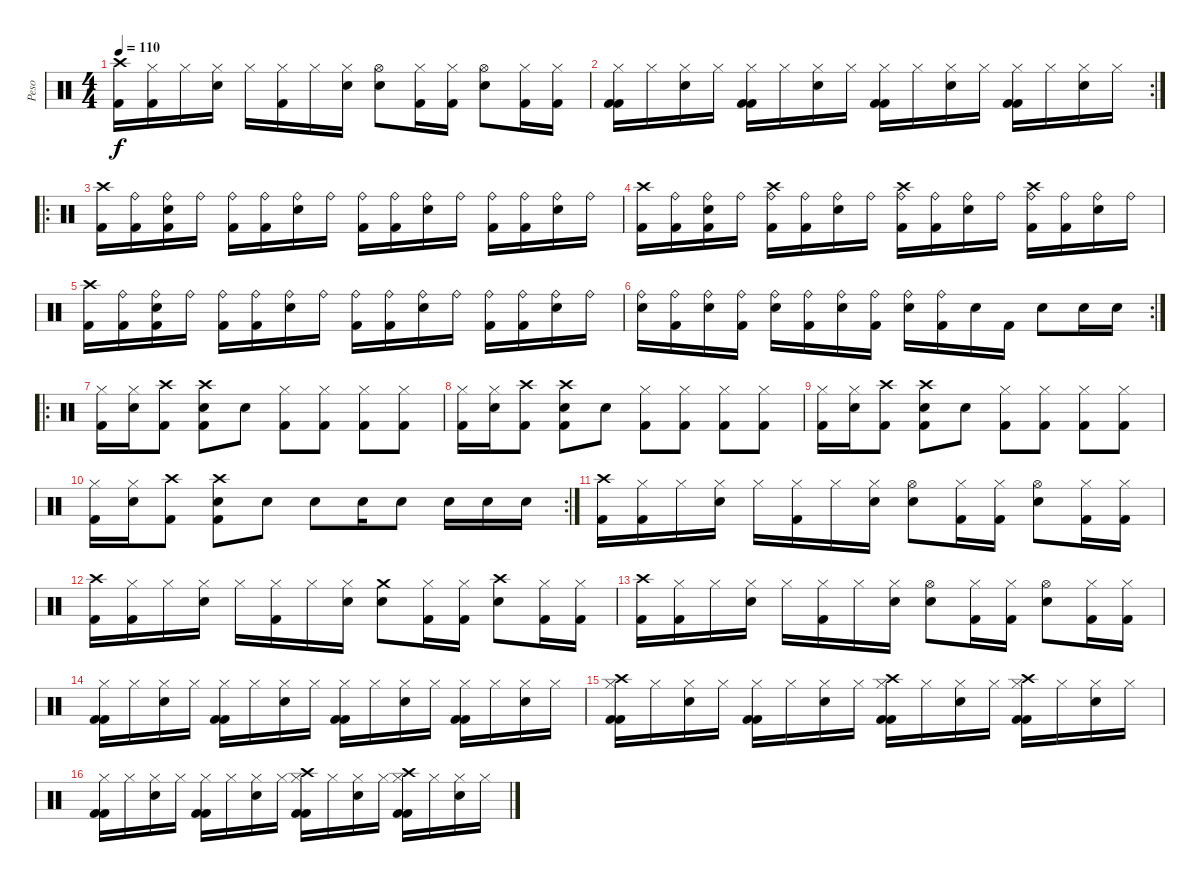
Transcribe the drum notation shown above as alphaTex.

\track ("Peso" "Peso") {instrument percussion}
\staff {score}
\articulation defaults
\ts (4 4)
\tempo 110
\clef neutral
\ks c
("Crash high (hit)" "Kick (hit) 2").16{dy f} ("Hi-Hat (closed)" "Kick (hit) 2").16 "Hi-Hat (closed)".16 ("Hi-Hat (closed)" "Snare (hit) 2").16 "Hi-Hat (closed)".16 ("Hi-Hat (closed)" "Kick (hit) 2").16 "Hi-Hat (closed)".16 ("Hi-Hat (closed)" "Snare (hit) 2").16 ("Hi-Hat (open)" "Snare (hit) 2").8 ("Hi-Hat (closed)" "Kick (hit) 2").16 ("Hi-Hat (closed)" "Kick (hit) 2").16 ("Hi-Hat (open)" "Snare (hit) 2").8 ("Hi-Hat (closed)" "Kick (hit) 2").16 ("Hi-Hat (closed)" "Kick (hit) 2").16 |
\rc 2
("Hi-Hat (closed)" "Kick (hit) 2" "Kick (hit) 2").16 "Hi-Hat (closed)".16 ("Hi-Hat (closed)" "Snare (hit) 2").16 "Hi-Hat (closed)".16 ("Hi-Hat (closed)" "Kick (hit) 2" "Kick (hit) 2").16 "Hi-Hat (closed)".16 ("Hi-Hat (closed)" "Snare (hit) 2").16 "Hi-Hat (closed)".16 ("Hi-Hat (closed)" "Kick (hit) 2" "Kick (hit) 2").16 "Hi-Hat (closed)".16 ("Hi-Hat (closed)" "Snare (hit) 2").16 "Hi-Hat (closed)".16 ("Hi-Hat (closed)" "Kick (hit) 2" "Kick (hit) 2").16 "Hi-Hat (closed)".16 ("Hi-Hat (closed)" "Snare (hit) 2").16 "Hi-Hat (closed)".16 |
\ro
("Crash high (hit)" "Kick (hit) 2").16 ("Ride (bell)" "Kick (hit) 2").16 ("Ride (bell)" "Snare (hit) 2" "Kick (hit) 2").16 "Ride (bell)".16 ("Ride (bell)" "Kick (hit) 2").16 ("Ride (bell)" "Kick (hit) 2").16 ("Ride (bell)" "Snare (hit) 2").16 "Ride (bell)".16 ("Ride (bell)" "Kick (hit) 2").16 ("Ride (bell)" "Kick (hit) 2").16 ("Ride (bell)" "Snare (hit) 2").16 "Ride (bell)".16 ("Ride (bell)" "Kick (hit) 2").16 ("Ride (bell)" "Kick (hit) 2").16 ("Ride (bell)" "Snare (hit) 2").16 "Ride (bell)".16 |
("Crash high (hit)" "Kick (hit) 2").16 ("Ride (bell)" "Kick (hit) 2").16 ("Ride (bell)" "Snare (hit) 2" "Kick (hit) 2").16 "Ride (bell)".16 ("Crash high (hit)" "Ride (bell)" "Kick (hit) 2").16 ("Ride (bell)" "Kick (hit) 2").16 ("Ride (bell)" "Snare (hit) 2").16 "Ride (bell)".16 ("Crash high (hit)" "Ride (bell)" "Kick (hit) 2").16 ("Ride (bell)" "Kick (hit) 2").16 ("Ride (bell)" "Snare (hit) 2").16 "Ride (bell)".16 ("Crash high (hit)" "Ride (bell)" "Kick (hit) 2").16 ("Ride (bell)" "Kick (hit) 2").16 ("Ride (bell)" "Snare (hit) 2").16 "Ride (bell)".16 |
("Crash high (hit)" "Kick (hit) 2").16 ("Ride (bell)" "Kick (hit) 2").16 ("Ride (bell)" "Snare (hit) 2" "Kick (hit) 2").16 "Ride (bell)".16 ("Ride (bell)" "Kick (hit) 2").16 ("Ride (bell)" "Kick (hit) 2").16 ("Ride (bell)" "Snare (hit) 2").16 "Ride (bell)".16 ("Ride (bell)" "Kick (hit) 2").16 ("Ride (bell)" "Kick (hit) 2").16 ("Ride (bell)" "Snare (hit) 2").16 "Ride (bell)".16 ("Ride (bell)" "Kick (hit) 2").16 ("Ride (bell)" "Kick (hit) 2").16 ("Ride (bell)" "Snare (hit) 2").16 "Ride (bell)".16 |
\rc 2
("Ride (bell)" "Snare (hit) 2").16 ("Ride (bell)" "Kick (hit) 2").16 ("Ride (bell)" "Snare (hit) 2").16 ("Ride (bell)" "Kick (hit) 2").16 ("Ride (bell)" "Snare (hit) 2").16 ("Ride (bell)" "Kick (hit) 2").16 ("Ride (bell)" "Snare (hit) 2").16 ("Ride (bell)" "Kick (hit) 2").16 ("Ride (bell)" "Snare (hit) 2").16 ("Ride (bell)" "Kick (hit) 2").16 "Snare (hit) 2".16 "Kick (hit) 2".16 "Snare (hit) 2".8 "Snare (hit) 2".16 "Snare (hit) 2".16 |
\ro
("Hi-Hat (closed)" "Kick (hit) 2").16 ("Hi-Hat (closed)" "Snare (hit) 2").16 ("Crash high (hit)" "Kick (hit) 2").8 ("Crash high (hit)" "Snare (hit)"{x} "Kick (hit) 2").8 "Snare (hit)"{x}.8 ("Hi-Hat (closed)" "Kick (hit) 2").8 ("Hi-Hat (closed)" "Kick (hit) 2").8 ("Hi-Hat (closed)" "Kick (hit) 2").8 ("Hi-Hat (closed)" "Kick (hit) 2").8 |
("Hi-Hat (closed)" "Kick (hit) 2").16 ("Hi-Hat (closed)" "Snare (hit) 2").16 ("Crash high (hit)" "Kick (hit) 2").8 ("Crash high (hit)" "Snare (hit)"{x} "Kick (hit) 2").8 "Snare (hit)"{x}.8 ("Hi-Hat (closed)" "Kick (hit) 2").8 ("Hi-Hat (closed)" "Kick (hit) 2").8 ("Hi-Hat (closed)" "Kick (hit) 2").8 ("Hi-Hat (closed)" "Kick (hit) 2").8 |
("Hi-Hat (closed)" "Kick (hit) 2").16 ("Hi-Hat (closed)" "Snare (hit) 2").16 ("Crash high (hit)" "Kick (hit) 2").8 ("Crash high (hit)" "Snare (hit)"{x} "Kick (hit) 2").8 "Snare (hit)"{x}.8 ("Hi-Hat (closed)" "Kick (hit) 2").8 ("Hi-Hat (closed)" "Kick (hit) 2").8 ("Hi-Hat (closed)" "Kick (hit) 2").8 ("Hi-Hat (closed)" "Kick (hit) 2").8 |
\rc 2
("Hi-Hat (closed)" "Kick (hit) 2").16 ("Hi-Hat (closed)" "Snare (hit) 2").16 ("Crash high (hit)" "Kick (hit) 2").8 ("Crash high (hit)" "Snare (hit)"{x} "Kick (hit) 2").8 "Snare (hit)"{x}.8 "Snare (hit) 2".8 "Snare (hit) 2".16 "Snare (hit) 2".8 "Snare (hit) 2".16 "Snare (hit) 2".16 "Snare (hit) 2".16 |
("Crash high (hit)" "Kick (hit) 2").16 ("Hi-Hat (closed)" "Kick (hit) 2").16 "Hi-Hat (closed)".16 ("Hi-Hat (closed)" "Snare (hit) 2").16 "Hi-Hat (closed)".16 ("Hi-Hat (closed)" "Kick (hit) 2").16 "Hi-Hat (closed)".16 ("Hi-Hat (closed)" "Snare (hit) 2").16 ("Hi-Hat (open)" "Snare (hit) 2").8 ("Hi-Hat (closed)" "Kick (hit) 2").16 ("Hi-Hat (closed)" "Kick (hit) 2").16 ("Hi-Hat (open)" "Snare (hit) 2").8 ("Hi-Hat (closed)" "Kick (hit) 2").16 ("Hi-Hat (closed)" "Kick (hit) 2").16 |
("Crash high (hit)" "Kick (hit) 2").16 ("Hi-Hat (closed)" "Kick (hit) 2").16 "Hi-Hat (closed)".16 ("Hi-Hat (closed)" "Snare (hit) 2").16 "Hi-Hat (closed)".16 ("Hi-Hat (closed)" "Kick (hit) 2").16 "Hi-Hat (closed)".16 ("Hi-Hat (closed)" "Snare (hit) 2").16 ("Crash medium (hit)" "Snare (hit) 2").8 ("Hi-Hat (closed)" "Kick (hit) 2").16 ("Hi-Hat (closed)" "Kick (hit) 2").16 ("Crash high (hit)" "Snare (hit) 2").8 ("Hi-Hat (closed)" "Kick (hit) 2").16 ("Hi-Hat (closed)" "Kick (hit) 2").16 |
("Crash high (hit)" "Kick (hit) 2").16 ("Hi-Hat (closed)" "Kick (hit) 2").16 "Hi-Hat (closed)".16 ("Hi-Hat (closed)" "Snare (hit) 2").16 "Hi-Hat (closed)".16 ("Hi-Hat (closed)" "Kick (hit) 2").16 "Hi-Hat (closed)".16 ("Hi-Hat (closed)" "Snare (hit) 2").16 ("Hi-Hat (open)" "Snare (hit) 2").8 ("Hi-Hat (closed)" "Kick (hit) 2").16 ("Hi-Hat (closed)" "Kick (hit) 2").16 ("Hi-Hat (open)" "Snare (hit) 2").8 ("Hi-Hat (closed)" "Kick (hit) 2").16 ("Hi-Hat (closed)" "Kick (hit) 2").16 |
("Hi-Hat (closed)" "Kick (hit) 2" "Kick (hit) 2").16 "Hi-Hat (closed)".16 ("Hi-Hat (closed)" "Snare (hit) 2").16 "Hi-Hat (closed)".16 ("Hi-Hat (closed)" "Kick (hit) 2" "Kick (hit) 2").16 "Hi-Hat (closed)".16 ("Hi-Hat (closed)" "Snare (hit) 2").16 "Hi-Hat (closed)".16 ("Hi-Hat (closed)" "Kick (hit) 2" "Kick (hit) 2").16 "Hi-Hat (closed)".16 ("Hi-Hat (closed)" "Snare (hit) 2").16 "Hi-Hat (closed)".16 ("Hi-Hat (closed)" "Kick (hit) 2" "Kick (hit) 2").16 "Hi-Hat (closed)".16 ("Hi-Hat (closed)" "Snare (hit) 2").16 "Hi-Hat (closed)".16 |
("Crash high (hit)" "Hi-Hat (closed)" "Kick (hit) 2" "Kick (hit) 2").16 "Hi-Hat (closed)".16 ("Hi-Hat (closed)" "Snare (hit) 2").16 "Hi-Hat (closed)".16 ("Hi-Hat (closed)" "Kick (hit) 2" "Kick (hit) 2").16 "Hi-Hat (closed)".16 ("Hi-Hat (closed)" "Snare (hit) 2").16 "Hi-Hat (closed)".16 ("Crash high (hit)" "Hi-Hat (closed)" "Kick (hit) 2" "Kick (hit) 2").16 "Hi-Hat (closed)".16 ("Hi-Hat (closed)" "Snare (hit) 2").16 "Hi-Hat (closed)".16 ("Crash high (hit)" "Hi-Hat (closed)" "Kick (hit) 2" "Kick (hit) 2").16 "Hi-Hat (closed)".16 ("Hi-Hat (closed)" "Snare (hit) 2").16 "Hi-Hat (closed)".16 |
("Hi-Hat (closed)" "Kick (hit) 2" "Kick (hit) 2").16 "Hi-Hat (closed)".16 ("Hi-Hat (closed)" "Snare (hit) 2").16 "Hi-Hat (closed)".16 ("Hi-Hat (closed)" "Kick (hit) 2" "Kick (hit) 2").16 "Hi-Hat (closed)".16 ("Hi-Hat (closed)" "Snare (hit) 2").16 "Hi-Hat (closed)".16 ("Crash high (hit)" "Hi-Hat (closed)" "Kick (hit) 2" "Kick (hit) 2").16 "Hi-Hat (closed)".16 ("Hi-Hat (closed)" "Snare (hit) 2").16 "Hi-Hat (closed)".16 ("Crash high (hit)" "Hi-Hat (closed)" "Kick (hit) 2" "Kick (hit) 2").16 "Hi-Hat (closed)".16 ("Hi-Hat (closed)" "Snare (hit) 2").16 "Hi-Hat (closed)".16
